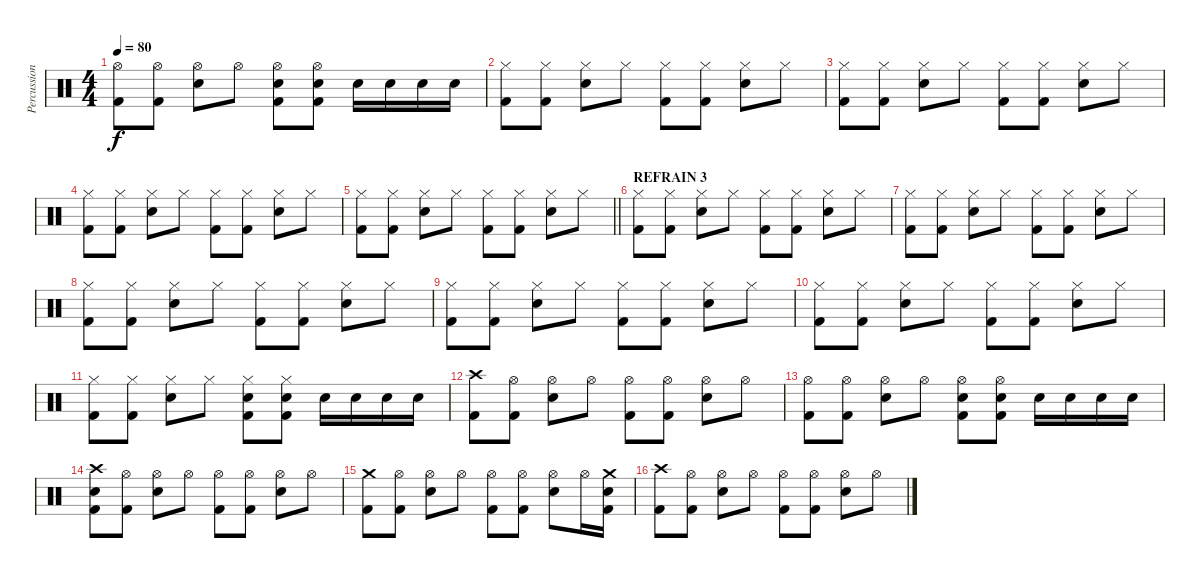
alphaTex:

\track ("Percussions" "Percussion") {instrument percussion}
\staff {score}
\articulation defaults
\ts (4 4)
\tempo 80
\clef neutral
\ks c
("Hi-Hat (open)" "Kick (hit) 2").8{dy f} ("Hi-Hat (open)" "Kick (hit) 2").8 ("Hi-Hat (open)" "Snare (hit) 2").8 "Hi-Hat (open)".8 ("Hi-Hat (open)" "Snare (hit) 2" "Kick (hit) 2").8 ("Hi-Hat (open)" "Snare (hit) 2" "Kick (hit) 2").8 "Snare (hit) 2".16 "Snare (hit) 2".16 "Snare (hit) 2".16 "Snare (hit) 2".16 |
("Hi-Hat (closed)" "Kick (hit) 2").8 ("Hi-Hat (closed)" "Kick (hit) 2").8 ("Hi-Hat (closed)" "Snare (hit) 2").8 "Hi-Hat (closed)".8 ("Hi-Hat (closed)" "Kick (hit) 2").8 ("Hi-Hat (closed)" "Kick (hit) 2").8 ("Hi-Hat (closed)" "Snare (hit) 2").8 "Hi-Hat (closed)".8 |
("Hi-Hat (closed)" "Kick (hit) 2").8 ("Hi-Hat (closed)" "Kick (hit) 2").8 ("Hi-Hat (closed)" "Snare (hit) 2").8 "Hi-Hat (closed)".8 ("Hi-Hat (closed)" "Kick (hit) 2").8 ("Hi-Hat (closed)" "Kick (hit) 2").8 ("Hi-Hat (closed)" "Snare (hit) 2").8 "Hi-Hat (closed)".8 |
("Hi-Hat (closed)" "Kick (hit) 2").8 ("Hi-Hat (closed)" "Kick (hit) 2").8 ("Hi-Hat (closed)" "Snare (hit) 2").8 "Hi-Hat (closed)".8 ("Hi-Hat (closed)" "Kick (hit) 2").8 ("Hi-Hat (closed)" "Kick (hit) 2").8 ("Hi-Hat (closed)" "Snare (hit) 2").8 "Hi-Hat (closed)".8 |
\barLineRight lightlight
("Hi-Hat (closed)" "Kick (hit) 2").8 ("Hi-Hat (closed)" "Kick (hit) 2").8 ("Hi-Hat (closed)" "Snare (hit) 2").8 "Hi-Hat (closed)".8 ("Hi-Hat (closed)" "Kick (hit) 2").8 ("Hi-Hat (closed)" "Kick (hit) 2").8 ("Hi-Hat (closed)" "Snare (hit) 2").8 "Hi-Hat (closed)".8 |
\section ("" "REFRAIN 3")
("Hi-Hat (closed)" "Kick (hit) 2").8 ("Hi-Hat (closed)" "Kick (hit) 2").8 ("Hi-Hat (closed)" "Snare (hit) 2").8 "Hi-Hat (closed)".8 ("Hi-Hat (closed)" "Kick (hit) 2").8 ("Hi-Hat (closed)" "Kick (hit) 2").8 ("Hi-Hat (closed)" "Snare (hit) 2").8 "Hi-Hat (closed)".8 |
("Hi-Hat (closed)" "Kick (hit) 2").8 ("Hi-Hat (closed)" "Kick (hit) 2").8 ("Hi-Hat (closed)" "Snare (hit) 2").8 "Hi-Hat (closed)".8 ("Hi-Hat (closed)" "Kick (hit) 2").8 ("Hi-Hat (closed)" "Kick (hit) 2").8 ("Hi-Hat (closed)" "Snare (hit) 2").8 "Hi-Hat (closed)".8 |
("Hi-Hat (closed)" "Kick (hit) 2").8 ("Hi-Hat (closed)" "Kick (hit) 2").8 ("Hi-Hat (closed)" "Snare (hit) 2").8 "Hi-Hat (closed)".8 ("Hi-Hat (closed)" "Kick (hit) 2").8 ("Hi-Hat (closed)" "Kick (hit) 2").8 ("Hi-Hat (closed)" "Snare (hit) 2").8 "Hi-Hat (closed)".8 |
("Hi-Hat (closed)" "Kick (hit) 2").8 ("Hi-Hat (closed)" "Kick (hit) 2").8 ("Hi-Hat (closed)" "Snare (hit) 2").8 "Hi-Hat (closed)".8 ("Hi-Hat (closed)" "Kick (hit) 2").8 ("Hi-Hat (closed)" "Kick (hit) 2").8 ("Hi-Hat (closed)" "Snare (hit) 2").8 "Hi-Hat (closed)".8 |
("Hi-Hat (closed)" "Kick (hit) 2").8 ("Hi-Hat (closed)" "Kick (hit) 2").8 ("Hi-Hat (closed)" "Snare (hit) 2").8 "Hi-Hat (closed)".8 ("Hi-Hat (closed)" "Kick (hit) 2").8 ("Hi-Hat (closed)" "Kick (hit) 2").8 ("Hi-Hat (closed)" "Snare (hit) 2").8 "Hi-Hat (closed)".8 |
("Hi-Hat (closed)" "Kick (hit) 2").8 ("Hi-Hat (closed)" "Kick (hit) 2").8 ("Hi-Hat (closed)" "Snare (hit) 2").8 "Hi-Hat (closed)".8 ("Hi-Hat (closed)" "Snare (hit) 2" "Kick (hit) 2").8 ("Hi-Hat (closed)" "Snare (hit) 2" "Kick (hit) 2").8 "Snare (hit) 2".16 "Snare (hit) 2".16 "Snare (hit) 2".16 "Snare (hit) 2".16 |
("Crash high (hit)" "Kick (hit) 2").8 ("Hi-Hat (open)" "Kick (hit) 2").8 ("Hi-Hat (open)" "Snare (hit) 2").8 "Hi-Hat (open)".8 ("Hi-Hat (open)" "Kick (hit) 2").8 ("Hi-Hat (open)" "Kick (hit) 2").8 ("Hi-Hat (open)" "Snare (hit) 2").8 "Hi-Hat (open)".8 |
("Hi-Hat (open)" "Kick (hit) 2").8 ("Hi-Hat (open)" "Kick (hit) 2").8 ("Hi-Hat (open)" "Snare (hit) 2").8 "Hi-Hat (open)".8 ("Hi-Hat (open)" "Snare (hit) 2" "Kick (hit) 2").8 ("Hi-Hat (open)" "Snare (hit) 2" "Kick (hit) 2").8 "Snare (hit) 2".16 "Snare (hit) 2".16 "Snare (hit) 2".16 "Snare (hit) 2".16 |
("Crash high (hit)" "Snare (hit) 2" "Kick (hit) 2").8 ("Hi-Hat (open)" "Kick (hit) 2").8 ("Hi-Hat (open)" "Snare (hit) 2").8 "Hi-Hat (open)".8 ("Hi-Hat (open)" "Kick (hit) 2").8 ("Hi-Hat (open)" "Kick (hit) 2").8 ("Hi-Hat (open)" "Snare (hit) 2").8 "Hi-Hat (open)".8 |
("Crash medium (hit)" "Kick (hit) 2").8 ("Hi-Hat (open)" "Kick (hit) 2").8 ("Hi-Hat (open)" "Snare (hit) 2").8 "Hi-Hat (open)".8 ("Hi-Hat (open)" "Kick (hit) 2").8 ("Hi-Hat (open)" "Kick (hit) 2").8 ("Hi-Hat (open)" "Snare (hit) 2").8 "Hi-Hat (open)".16 ("Crash medium (hit)" "Snare (hit) 2" "Kick (hit) 2").16 |
("Crash high (hit)" "Kick (hit) 2").8 ("Hi-Hat (open)" "Kick (hit) 2").8 ("Hi-Hat (open)" "Snare (hit) 2").8 "Hi-Hat (open)".8 ("Hi-Hat (open)" "Kick (hit) 2").8 ("Hi-Hat (open)" "Kick (hit) 2").8 ("Hi-Hat (open)" "Snare (hit) 2").8 "Hi-Hat (open)".8
